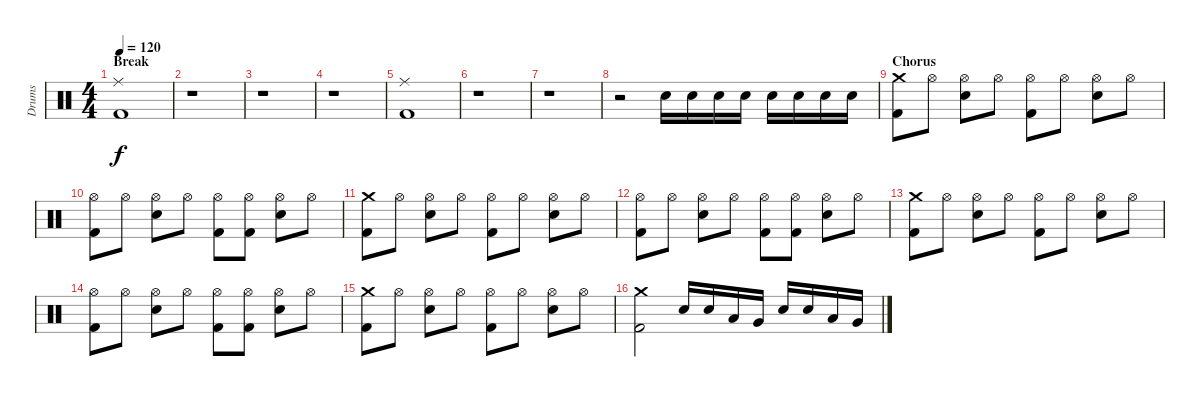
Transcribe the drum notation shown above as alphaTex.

\track ("Drums" "Drums") {instrument percussion}
\staff {score}
\articulation defaults
\ts (4 4)
\section ("" "Break")
\tempo 120
\clef neutral
\ks c
("Ride (middle)" "Kick (hit) 2").1{dy f} |
r.1 |
r.1 |
r.1 |
("Ride (middle)" "Kick (hit) 2").1 |
r.1 |
r.1 |
r.2 "Electric Snare (hit)".16 "Electric Snare (hit)".16 "Electric Snare (hit)".16 "Electric Snare (hit)".16 "Electric Snare (hit)".16 "Electric Snare (hit)".16 "Electric Snare (hit)".16 "Electric Snare (hit)".16 |
\section ("" "Chorus")
("Crash medium (hit)" "Kick (hit) 2").8 "Hi-Hat (open)".8 ("Hi-Hat (open)" "Electric Snare (hit)").8 "Hi-Hat (open)".8 ("Hi-Hat (open)" "Kick (hit) 2").8 "Hi-Hat (open)".8 ("Hi-Hat (open)" "Electric Snare (hit)").8 "Hi-Hat (open)".8 |
("Hi-Hat (open)" "Kick (hit) 2").8 "Hi-Hat (open)".8 ("Hi-Hat (open)" "Electric Snare (hit)").8 "Hi-Hat (open)".8 ("Hi-Hat (open)" "Kick (hit) 2").8 ("Hi-Hat (open)" "Kick (hit) 2").8 ("Hi-Hat (open)" "Electric Snare (hit)").8 "Hi-Hat (open)".8 |
("Crash medium (hit)" "Kick (hit) 2").8 "Hi-Hat (open)".8 ("Hi-Hat (open)" "Electric Snare (hit)").8 "Hi-Hat (open)".8 ("Hi-Hat (open)" "Kick (hit) 2").8 "Hi-Hat (open)".8 ("Hi-Hat (open)" "Electric Snare (hit)").8 "Hi-Hat (open)".8 |
("Hi-Hat (open)" "Kick (hit) 2").8 "Hi-Hat (open)".8 ("Hi-Hat (open)" "Electric Snare (hit)").8 "Hi-Hat (open)".8 ("Hi-Hat (open)" "Kick (hit) 2").8 ("Hi-Hat (open)" "Kick (hit) 2").8 ("Hi-Hat (open)" "Electric Snare (hit)").8 "Hi-Hat (open)".8 |
("Crash medium (hit)" "Kick (hit) 2").8 "Hi-Hat (open)".8 ("Hi-Hat (open)" "Electric Snare (hit)").8 "Hi-Hat (open)".8 ("Hi-Hat (open)" "Kick (hit) 2").8 "Hi-Hat (open)".8 ("Hi-Hat (open)" "Electric Snare (hit)").8 "Hi-Hat (open)".8 |
("Hi-Hat (open)" "Kick (hit) 2").8 "Hi-Hat (open)".8 ("Hi-Hat (open)" "Electric Snare (hit)").8 "Hi-Hat (open)".8 ("Hi-Hat (open)" "Kick (hit) 2").8 ("Hi-Hat (open)" "Kick (hit) 2").8 ("Hi-Hat (open)" "Electric Snare (hit)").8 "Hi-Hat (open)".8 |
("Crash medium (hit)" "Kick (hit) 2").8 "Hi-Hat (open)".8 ("Hi-Hat (open)" "Electric Snare (hit)").8 "Hi-Hat (open)".8 ("Hi-Hat (open)" "Kick (hit) 2").8 "Hi-Hat (open)".8 ("Hi-Hat (open)" "Electric Snare (hit)").8 "Hi-Hat (open)".8 |
("Crash medium (hit)" "Kick (hit) 2").2 "Electric Snare (hit)".16 "Electric Snare (hit)".16 "Low Tom (hit)".16 "Very Low Tom (hit)".16 "Electric Snare (hit)".16 "Electric Snare (hit)".16 "Low Tom (hit)".16 "Very Low Tom (hit)".16
